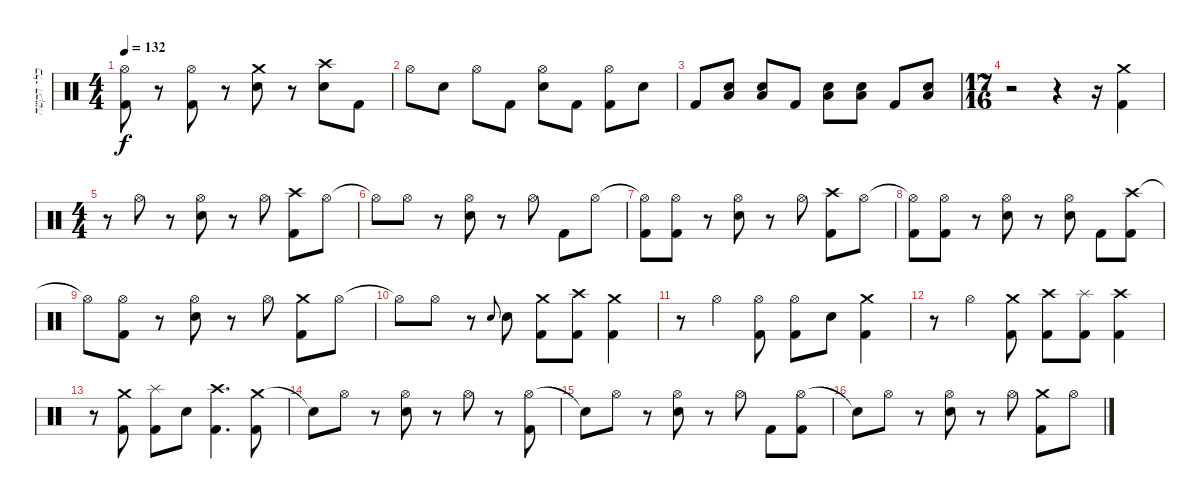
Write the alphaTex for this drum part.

\track ("כלי הקשה" "כלי הקשה") {instrument percussion}
\staff {score}
\articulation defaults
\ts (4 4)
\tempo 132
\clef neutral
\ks c
("Hi-Hat (open)" "Kick (hit) 2").8{dy f} r.8 ("Hi-Hat (open)" "Kick (hit) 2").8 r.8 ("Crash medium (hit)" "Electric Snare (hit)").8 r.8 ("Crash high (hit)" "Electric Snare (hit)").8 "Kick (hit) 2".8 |
"Hi-Hat (open)".8 "Electric Snare (hit)".8 "Hi-Hat (open)".8 "Kick (hit) 2".8 ("Hi-Hat (open)" "Electric Snare (hit)").8 "Kick (hit) 2".8 ("Hi-Hat (open)" "Kick (hit) 2").8 "Electric Snare (hit)".8 |
"Kick (hit) 2".8 ("Low Floor Tom (hit)" "Electric Snare (hit)").8 ("Low Floor Tom (hit)" "Electric Snare (hit)").8 "Kick (hit) 2".8 ("Low Floor Tom (hit)" "Electric Snare (hit)").8 ("Low Floor Tom (hit)" "Electric Snare (hit)").8 "Kick (hit) 2".8 ("Low Floor Tom (hit)" "Electric Snare (hit)").8 |
\ts (17 16)
r.2 r.4 r.16 ("Crash medium (hit)" "Kick (hit) 2").4 |
\ts (4 4)
r.8 "Hi-Hat (open)".8 r.8 ("Hi-Hat (open)" "Electric Snare (hit)").8 r.8 "Hi-Hat (open)".8 ("Crash high (hit)" "Kick (hit) 2").8 "Hi-Hat (open)".8 |
"Hi-Hat (open)"{t}.8 "Hi-Hat (open)".8 r.8 ("Hi-Hat (open)" "Electric Snare (hit)").8 r.8 "Hi-Hat (open)".8 "Kick (hit) 2".8 "Hi-Hat (open)".8 |
("Hi-Hat (open)"{t} "Kick (hit) 2").8 ("Hi-Hat (open)" "Kick (hit) 2").8 r.8 ("Hi-Hat (open)" "Electric Snare (hit)").8 r.8 "Hi-Hat (open)".8 ("Crash high (hit)" "Kick (hit) 2").8 "Hi-Hat (open)".8 |
("Hi-Hat (open)"{t} "Kick (hit) 2").8 ("Hi-Hat (open)" "Kick (hit) 2").8 r.8 ("Hi-Hat (open)" "Electric Snare (hit)").8 r.8 ("Hi-Hat (open)" "Electric Snare (hit)").8 "Kick (hit) 2".8 ("Crash high (hit)" "Kick (hit) 2").8 |
"Hi-Hat (open)"{t}.8 ("Hi-Hat (open)" "Kick (hit) 2").8 r.8 ("Hi-Hat (open)" "Electric Snare (hit)").8 r.8 "Hi-Hat (open)".8 ("Crash medium (hit)" "Kick (hit) 2").8 "Hi-Hat (open)".8 |
"Hi-Hat (open)"{t}.8 "Hi-Hat (open)".8 r.8 "Electric Snare (hit)".8{gr onbeat} "Electric Snare (hit)".8 ("Crash medium (hit)" "Kick (hit) 2").8 ("Crash high (hit)" "Kick (hit) 2").8 ("Crash medium (hit)" "Kick (hit) 2").4 |
r.8 "Hi-Hat (open)".4 ("Hi-Hat (open)" "Kick (hit) 2").8 ("Hi-Hat (open)" "Kick (hit) 2").8 "Electric Snare (hit)".8 ("Crash medium (hit)" "Kick (hit) 2").4 |
r.8 "Hi-Hat (open)".4 ("Crash medium (hit)" "Kick (hit) 2").8 ("Crash high (hit)" "Kick (hit) 2").8 ("Splash (hit)" "Kick (hit) 2").8 ("Crash high (hit)" "Kick (hit) 2").4 |
r.8 ("Crash medium (hit)" "Kick (hit) 2").8 ("Splash (hit)" "Kick (hit) 2").8 "Electric Snare (hit)".8 ("Crash high (hit)" "Kick (hit) 2").4{d} ("Crash medium (hit)" "Kick (hit) 2").8 |
"Snare (hit)"{t}.8 "Hi-Hat (open)".8 r.8 ("Hi-Hat (open)" "Electric Snare (hit)").8 r.8 "Hi-Hat (open)".8 r.8 ("Hi-Hat (open)" "Kick (hit) 2").8 |
"Snare (hit)"{t}.8 "Hi-Hat (open)".8 r.8 ("Hi-Hat (open)" "Electric Snare (hit)").8 r.8 "Hi-Hat (open)".8 "Kick (hit) 2".8 ("Hi-Hat (open)" "Kick (hit) 2").8 |
"Snare (hit)"{t}.8 "Hi-Hat (open)".8 r.8 ("Hi-Hat (open)" "Electric Snare (hit)").8 r.8 "Hi-Hat (open)".8 ("Crash medium (hit)" "Kick (hit) 2").8 "Hi-Hat (open)".8
